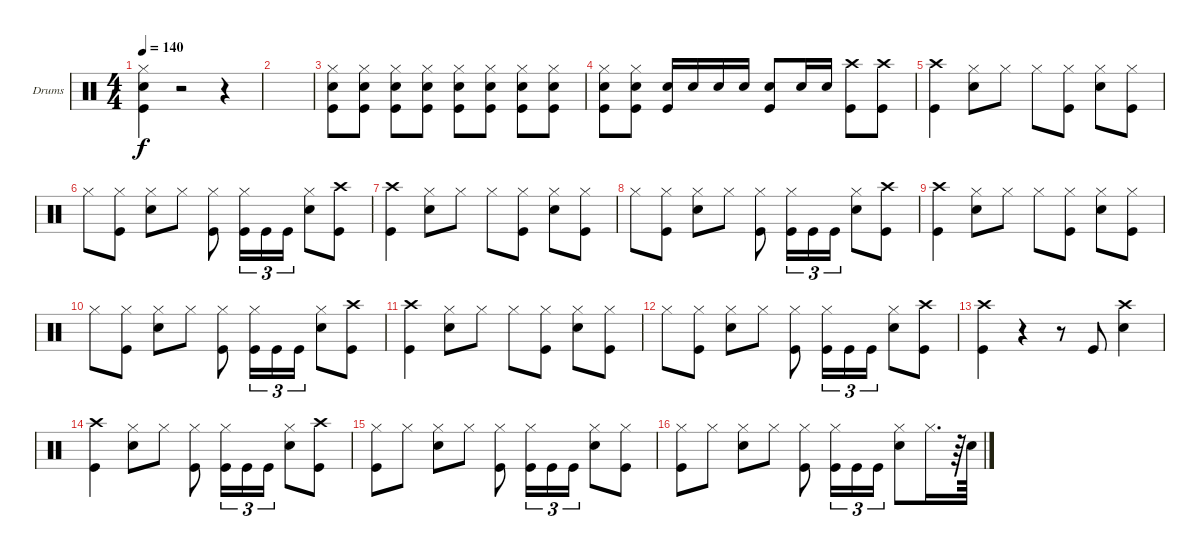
\defaultSystemsLayout 4
\bracketExtendMode groupsimilarinstruments
\firstSystemTrackNameOrientation horizontal
\otherSystemsTrackNameOrientation horizontal
\track ("Drums" "Drums") {instrument percussion}
\staff {score}
\articulation defaults
\ts (4 4)
\tempo 140
\clef neutral
\ks c
("Kick (hit)" "Snare (hit) 2" "Hi-Hat (closed)").4{dy f} r.2 r.4 |
|
("Snare (hit) 2" "Hi-Hat (closed)" "Kick (hit)").8 ("Hi-Hat (closed)" "Snare (hit) 2" "Kick (hit)").8 ("Snare (hit) 2" "Hi-Hat (closed)" "Kick (hit)").8 ("Hi-Hat (closed)" "Snare (hit) 2" "Kick (hit)").8 ("Snare (hit) 2" "Hi-Hat (closed)" "Kick (hit)").8 ("Hi-Hat (closed)" "Snare (hit) 2" "Kick (hit)").8 ("Snare (hit) 2" "Hi-Hat (closed)" "Kick (hit)").8 ("Hi-Hat (closed)" "Snare (hit) 2" "Kick (hit)").8 |
("Snare (hit) 2" "Hi-Hat (closed)" "Kick (hit)").8 ("Hi-Hat (closed)" "Snare (hit) 2" "Kick (hit)").8 ("Kick (hit)" "Snare (hit) 2").16 "Snare (hit) 2".16 "Snare (hit) 2".16 "Snare (hit) 2".16 ("Kick (hit)" "Snare (hit) 2").8 "Snare (hit) 2".16 "Snare (hit) 2".16 ("Crash high (hit)" "Kick (hit)").8 ("Crash high (hit)" "Kick (hit)").8 |
("Kick (hit)" "Crash high (hit)").4 ("Snare (hit) 2" "Hi-Hat (closed)").8 "Hi-Hat (closed)".8 "Hi-Hat (closed)".8 ("Kick (hit)" "Hi-Hat (closed)").8 ("Snare (hit) 2" "Hi-Hat (closed)").8 ("Kick (hit)" "Hi-Hat (closed)").8 |
"Hi-Hat (closed)".8 ("Kick (hit)" "Hi-Hat (closed)").8 ("Snare (hit) 2" "Hi-Hat (closed)").8 "Hi-Hat (closed)".8 ("Kick (hit)" "Hi-Hat (closed)").8 ("Kick (hit)" "Hi-Hat (closed)").16{tu (3 2)} "Kick (hit)".16{tu (3 2)} "Kick (hit)".16{tu (3 2)} ("Snare (hit) 2" "Hi-Hat (closed)").8 ("Kick (hit)" "Crash high (hit)").8 |
("Kick (hit)" "Crash high (hit)").4 ("Snare (hit) 2" "Hi-Hat (closed)").8 "Hi-Hat (closed)".8 "Hi-Hat (closed)".8 ("Kick (hit)" "Hi-Hat (closed)").8 ("Snare (hit) 2" "Hi-Hat (closed)").8 ("Kick (hit)" "Hi-Hat (closed)").8 |
"Hi-Hat (closed)".8 ("Kick (hit)" "Hi-Hat (closed)").8 ("Snare (hit) 2" "Hi-Hat (closed)").8 "Hi-Hat (closed)".8 ("Kick (hit)" "Hi-Hat (closed)").8 ("Kick (hit)" "Hi-Hat (closed)").16{tu (3 2)} "Kick (hit)".16{tu (3 2)} "Kick (hit)".16{tu (3 2)} ("Snare (hit) 2" "Hi-Hat (closed)").8 ("Kick (hit)" "Crash high (hit)").8 |
("Kick (hit)" "Crash high (hit)").4 ("Snare (hit) 2" "Hi-Hat (closed)").8 "Hi-Hat (closed)".8 "Hi-Hat (closed)".8 ("Kick (hit)" "Hi-Hat (closed)").8 ("Snare (hit) 2" "Hi-Hat (closed)").8 ("Kick (hit)" "Hi-Hat (closed)").8 |
"Hi-Hat (closed)".8 ("Kick (hit)" "Hi-Hat (closed)").8 ("Snare (hit) 2" "Hi-Hat (closed)").8 "Hi-Hat (closed)".8 ("Kick (hit)" "Hi-Hat (closed)").8 ("Kick (hit)" "Hi-Hat (closed)").16{tu (3 2)} "Kick (hit)".16{tu (3 2)} "Kick (hit)".16{tu (3 2)} ("Snare (hit) 2" "Hi-Hat (closed)").8 ("Kick (hit)" "Crash high (hit)").8 |
("Kick (hit)" "Crash high (hit)").4 ("Snare (hit) 2" "Hi-Hat (closed)").8 "Hi-Hat (closed)".8 "Hi-Hat (closed)".8 ("Kick (hit)" "Hi-Hat (closed)").8 ("Snare (hit) 2" "Hi-Hat (closed)").8 ("Kick (hit)" "Hi-Hat (closed)").8 |
"Hi-Hat (closed)".8 ("Kick (hit)" "Hi-Hat (closed)").8 ("Snare (hit) 2" "Hi-Hat (closed)").8 "Hi-Hat (closed)".8 ("Kick (hit)" "Hi-Hat (closed)").8 ("Kick (hit)" "Hi-Hat (closed)").16{tu (3 2)} "Kick (hit)".16{tu (3 2)} "Kick (hit)".16{tu (3 2)} ("Snare (hit) 2" "Hi-Hat (closed)").8 ("Kick (hit)" "Crash high (hit)").8 |
("Kick (hit)" "Crash high (hit)").4 r.4 r.8 "Kick (hit)".8 ("Crash high (hit)" "Snare (hit) 2").4 |
("Crash high (hit)" "Kick (hit)").4 ("Snare (hit) 2" "Hi-Hat (closed)").8 "Hi-Hat (closed)".8 ("Kick (hit)" "Hi-Hat (closed)").8 ("Kick (hit)" "Hi-Hat (closed)").16{tu (3 2)} "Kick (hit)".16{tu (3 2)} "Kick (hit)".16{tu (3 2)} ("Snare (hit) 2" "Hi-Hat (closed)").8 ("Kick (hit)" "Crash high (hit)").8 |
("Kick (hit)" "Hi-Hat (closed)").8 "Hi-Hat (closed)".8 ("Snare (hit) 2" "Hi-Hat (closed)").8 "Hi-Hat (closed)".8 ("Kick (hit)" "Hi-Hat (closed)").8 ("Kick (hit)" "Hi-Hat (closed)").16{tu (3 2)} "Kick (hit)".16{tu (3 2)} "Kick (hit)".16{tu (3 2)} ("Snare (hit) 2" "Hi-Hat (closed)").8 ("Hi-Hat (closed)" "Kick (hit)").8 |
("Kick (hit)" "Hi-Hat (closed)").8 "Hi-Hat (closed)".8 ("Snare (hit) 2" "Hi-Hat (closed)").8 "Hi-Hat (closed)".8 ("Kick (hit)" "Hi-Hat (closed)").8 ("Kick (hit)" "Hi-Hat (closed)").16{tu (3 2)} "Kick (hit)".16{tu (3 2)} "Kick (hit)".16{tu (3 2)} ("Snare (hit) 2" "Hi-Hat (closed)").8 "Hi-Hat (closed)".16{d} r.64 "Snare (hit) 2".64
